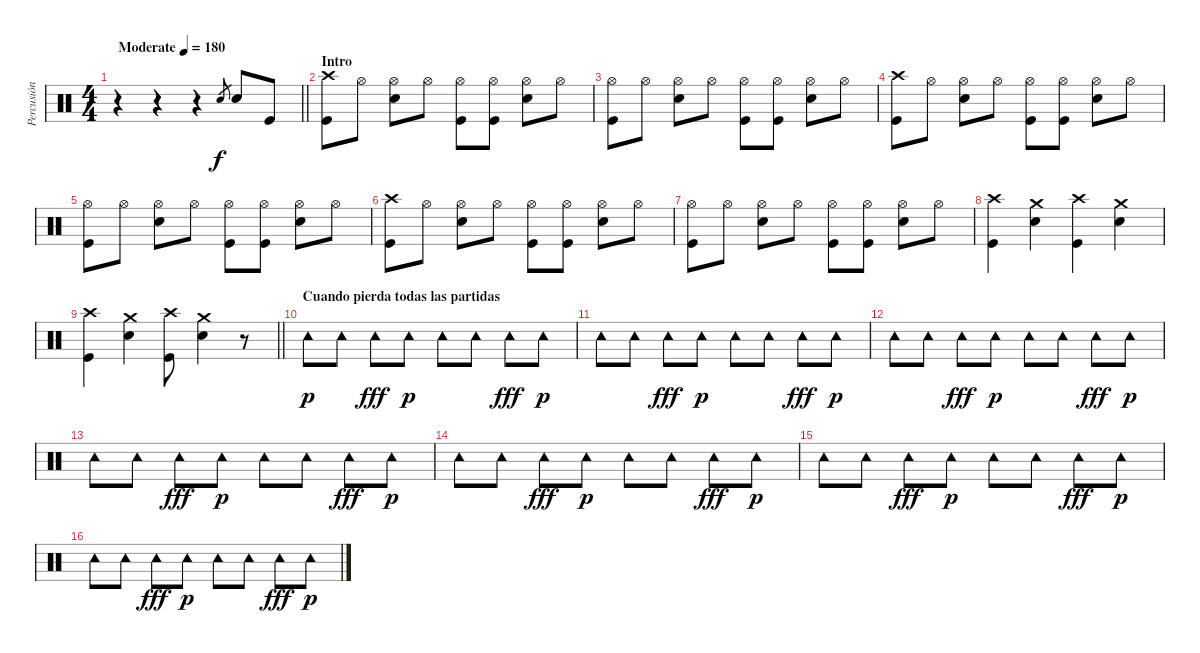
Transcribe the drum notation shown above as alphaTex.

\track ("Percusión" "Percusión") {instrument percussion}
\staff {score}
\articulation defaults
\ts (4 4)
\tempo (180 "Moderate")
\clef neutral
\barLineRight lightlight
\ks c
r.4{dy f} r.4 r.4 "Electric Snare (hit)".8{gr} "Electric Snare (hit)".8 "Kick (hit)".8 |
\section ("" "Intro")
("Crash high (hit)" "Kick (hit)").8 "Hi-Hat (open)".8 ("Hi-Hat (open)" "Electric Snare (hit)").8 "Hi-Hat (open)".8 ("Hi-Hat (open)" "Kick (hit)").8 ("Hi-Hat (open)" "Kick (hit)").8 ("Hi-Hat (open)" "Electric Snare (hit)").8 "Hi-Hat (open)".8 |
("Hi-Hat (open)" "Kick (hit)").8 "Hi-Hat (open)".8 ("Hi-Hat (open)" "Electric Snare (hit)").8 "Hi-Hat (open)".8 ("Hi-Hat (open)" "Kick (hit)").8 ("Hi-Hat (open)" "Kick (hit)").8 ("Hi-Hat (open)" "Electric Snare (hit)").8 "Hi-Hat (open)".8 |
("Crash high (hit)" "Kick (hit)").8 "Hi-Hat (open)".8 ("Hi-Hat (open)" "Electric Snare (hit)").8 "Hi-Hat (open)".8 ("Hi-Hat (open)" "Kick (hit)").8 ("Hi-Hat (open)" "Kick (hit)").8 ("Hi-Hat (open)" "Electric Snare (hit)").8 "Hi-Hat (open)".8 |
("Hi-Hat (open)" "Kick (hit)").8 "Hi-Hat (open)".8 ("Hi-Hat (open)" "Electric Snare (hit)").8 "Hi-Hat (open)".8 ("Hi-Hat (open)" "Kick (hit)").8 ("Hi-Hat (open)" "Kick (hit)").8 ("Hi-Hat (open)" "Electric Snare (hit)").8 "Hi-Hat (open)".8 |
("Crash high (hit)" "Kick (hit)").8 "Hi-Hat (open)".8 ("Hi-Hat (open)" "Electric Snare (hit)").8 "Hi-Hat (open)".8 ("Hi-Hat (open)" "Kick (hit)").8 ("Hi-Hat (open)" "Kick (hit)").8 ("Hi-Hat (open)" "Electric Snare (hit)").8 "Hi-Hat (open)".8 |
("Hi-Hat (open)" "Kick (hit)").8 "Hi-Hat (open)".8 ("Hi-Hat (open)" "Electric Snare (hit)").8 "Hi-Hat (open)".8 ("Hi-Hat (open)" "Kick (hit)").8 ("Hi-Hat (open)" "Kick (hit)").8 ("Hi-Hat (open)" "Electric Snare (hit)").8 "Hi-Hat (open)".8 |
("Crash high (hit)" "Kick (hit)").4 ("Crash medium (hit)" "Electric Snare (hit)").4 ("Crash high (hit)" "Kick (hit)").4 ("Crash medium (hit)" "Electric Snare (hit)").4 |
\barLineRight lightlight
("Crash high (hit)" "Kick (hit)").4 ("Crash medium (hit)" "Electric Snare (hit)").4 ("Crash high (hit)" "Kick (hit)").8 ("Crash medium (hit)" "Electric Snare (hit)").4 r.8 |
\section ("" "Cuando pierda todas las partidas")
"Tambourine (hit)".8{dy p} "Tambourine (hit)".8 "Tambourine (hit)".8{dy fff} "Tambourine (hit)".8{dy p} "Tambourine (hit)".8 "Tambourine (hit)".8 "Tambourine (hit)".8{dy fff} "Tambourine (hit)".8{dy p} |
"Tambourine (hit)".8 "Tambourine (hit)".8 "Tambourine (hit)".8{dy fff} "Tambourine (hit)".8{dy p} "Tambourine (hit)".8 "Tambourine (hit)".8 "Tambourine (hit)".8{dy fff} "Tambourine (hit)".8{dy p} |
"Tambourine (hit)".8 "Tambourine (hit)".8 "Tambourine (hit)".8{dy fff} "Tambourine (hit)".8{dy p} "Tambourine (hit)".8 "Tambourine (hit)".8 "Tambourine (hit)".8{dy fff} "Tambourine (hit)".8{dy p} |
"Tambourine (hit)".8 "Tambourine (hit)".8 "Tambourine (hit)".8{dy fff} "Tambourine (hit)".8{dy p} "Tambourine (hit)".8 "Tambourine (hit)".8 "Tambourine (hit)".8{dy fff} "Tambourine (hit)".8{dy p} |
"Tambourine (hit)".8 "Tambourine (hit)".8 "Tambourine (hit)".8{dy fff} "Tambourine (hit)".8{dy p} "Tambourine (hit)".8 "Tambourine (hit)".8 "Tambourine (hit)".8{dy fff} "Tambourine (hit)".8{dy p} |
"Tambourine (hit)".8 "Tambourine (hit)".8 "Tambourine (hit)".8{dy fff} "Tambourine (hit)".8{dy p} "Tambourine (hit)".8 "Tambourine (hit)".8 "Tambourine (hit)".8{dy fff} "Tambourine (hit)".8{dy p} |
"Tambourine (hit)".8 "Tambourine (hit)".8 "Tambourine (hit)".8{dy fff} "Tambourine (hit)".8{dy p} "Tambourine (hit)".8 "Tambourine (hit)".8 "Tambourine (hit)".8{dy fff} "Tambourine (hit)".8{dy p}
